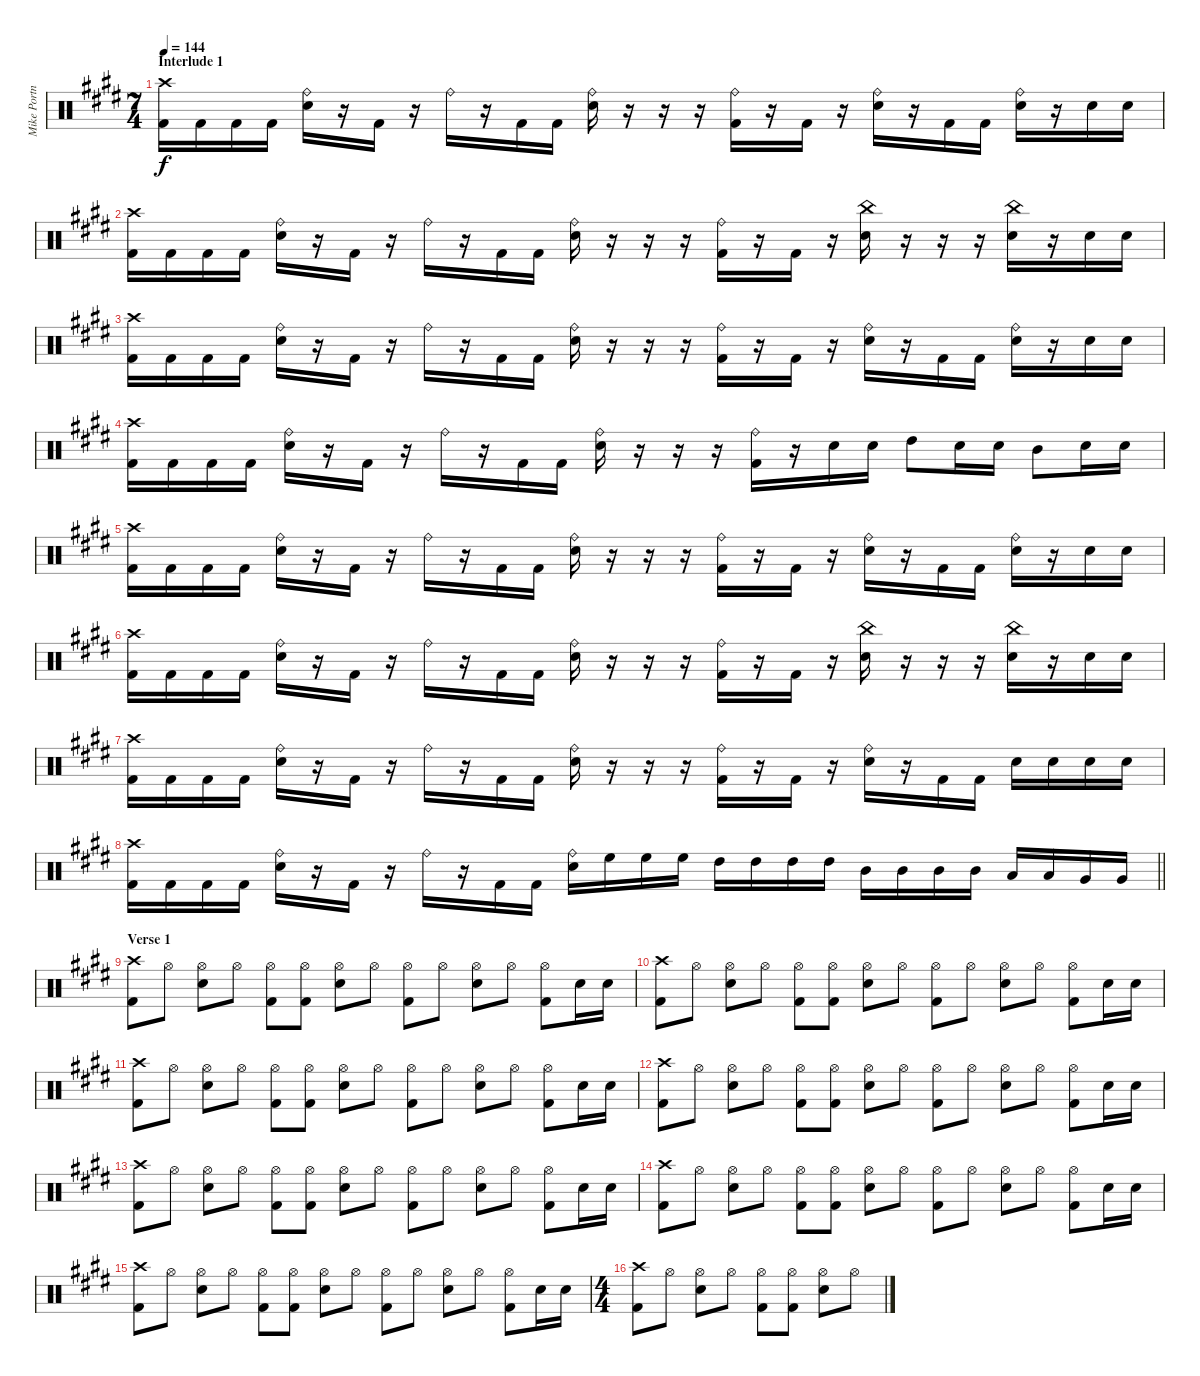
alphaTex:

\track ("Mike Portnoy" "Mike Portn") {instrument percussion}
\staff {score}
\articulation defaults
\ts (7 4)
\section ("" "Interlude 1")
\tempo 144
\clef neutral
\ks e
("Crash high (hit)" "Kick (hit) 2").16{dy f} "Kick (hit) 2".16 "Kick (hit) 2".16 "Kick (hit) 2".16 ("Ride (bell)" "Snare (hit) 2").16 r.16 "Kick (hit) 2".16 r.16 "Ride (bell)".16 r.16 "Kick (hit) 2".16 "Kick (hit) 2".16 ("Ride (bell)" "Snare (hit) 2").16 r.16 r.16 r.16 ("Ride (bell)" "Kick (hit) 2").16 r.16 "Kick (hit) 2".16 r.16 ("Ride (bell)" "Snare (hit) 2").16 r.16 "Kick (hit) 2".16 "Kick (hit) 2".16 ("Ride (bell)" "Snare (hit) 2").16 r.16 "Snare (hit) 2".16 "Snare (hit) 2".16 |
("Crash high (hit)" "Kick (hit) 2").16 "Kick (hit) 2".16 "Kick (hit) 2".16 "Kick (hit) 2".16 ("Ride (bell)" "Snare (hit) 2").16 r.16 "Kick (hit) 2".16 r.16 "Ride (bell)".16 r.16 "Kick (hit) 2".16 "Kick (hit) 2".16 ("Ride (bell)" "Snare (hit) 2").16 r.16 r.16 r.16 ("Ride (bell)" "Kick (hit) 2").16 r.16 "Kick (hit) 2".16 r.16 ("China (hit)" "Snare (hit) 2").16 r.16 r.16 r.16 ("China (hit)" "Snare (hit) 2").16 r.16 "Snare (hit) 2".16 "Snare (hit) 2".16 |
("Crash high (hit)" "Kick (hit) 2").16 "Kick (hit) 2".16 "Kick (hit) 2".16 "Kick (hit) 2".16 ("Ride (bell)" "Snare (hit) 2").16 r.16 "Kick (hit) 2".16 r.16 "Ride (bell)".16 r.16 "Kick (hit) 2".16 "Kick (hit) 2".16 ("Ride (bell)" "Snare (hit) 2").16 r.16 r.16 r.16 ("Ride (bell)" "Kick (hit) 2").16 r.16 "Kick (hit) 2".16 r.16 ("Ride (bell)" "Snare (hit) 2").16 r.16 "Kick (hit) 2".16 "Kick (hit) 2".16 ("Ride (bell)" "Snare (hit) 2").16 r.16 "Snare (hit) 2".16 "Snare (hit) 2".16 |
("Crash high (hit)" "Kick (hit) 2").16 "Kick (hit) 2".16 "Kick (hit) 2".16 "Kick (hit) 2".16 ("Ride (bell)" "Snare (hit) 2").16 r.16 "Kick (hit) 2".16 r.16 "Ride (bell)".16 r.16 "Kick (hit) 2".16 "Kick (hit) 2".16 ("Ride (bell)" "Snare (hit) 2").16 r.16 r.16 r.16 ("Ride (bell)" "Kick (hit) 2").16 r.16 "Snare (hit) 2".16 "Snare (hit) 2".16 "High Tom (hit)".8 "Snare (hit) 2".16 "Snare (hit) 2".16 "Mid Tom (hit)".8 "Snare (hit) 2".16 "Snare (hit) 2".16 |
("Crash high (hit)" "Kick (hit) 2").16 "Kick (hit) 2".16 "Kick (hit) 2".16 "Kick (hit) 2".16 ("Ride (bell)" "Snare (hit) 2").16 r.16 "Kick (hit) 2".16 r.16 "Ride (bell)".16 r.16 "Kick (hit) 2".16 "Kick (hit) 2".16 ("Ride (bell)" "Snare (hit) 2").16 r.16 r.16 r.16 ("Ride (bell)" "Kick (hit) 2").16 r.16 "Kick (hit) 2".16 r.16 ("Ride (bell)" "Snare (hit) 2").16 r.16 "Kick (hit) 2".16 "Kick (hit) 2".16 ("Ride (bell)" "Snare (hit) 2").16 r.16 "Snare (hit) 2".16 "Snare (hit) 2".16 |
("Crash high (hit)" "Kick (hit) 2").16 "Kick (hit) 2".16 "Kick (hit) 2".16 "Kick (hit) 2".16 ("Ride (bell)" "Snare (hit) 2").16 r.16 "Kick (hit) 2".16 r.16 "Ride (bell)".16 r.16 "Kick (hit) 2".16 "Kick (hit) 2".16 ("Ride (bell)" "Snare (hit) 2").16 r.16 r.16 r.16 ("Ride (bell)" "Kick (hit) 2").16 r.16 "Kick (hit) 2".16 r.16 ("China (hit)" "Snare (hit) 2").16 r.16 r.16 r.16 ("China (hit)" "Snare (hit) 2").16 r.16 "Snare (hit) 2".16 "Snare (hit) 2".16 |
("Crash high (hit)" "Kick (hit) 2").16 "Kick (hit) 2".16 "Kick (hit) 2".16 "Kick (hit) 2".16 ("Ride (bell)" "Snare (hit) 2").16 r.16 "Kick (hit) 2".16 r.16 "Ride (bell)".16 r.16 "Kick (hit) 2".16 "Kick (hit) 2".16 ("Ride (bell)" "Snare (hit) 2").16 r.16 r.16 r.16 ("Ride (bell)" "Kick (hit) 2").16 r.16 "Kick (hit) 2".16 r.16 ("Ride (bell)" "Snare (hit) 2").16 r.16 "Kick (hit) 2".16 "Kick (hit) 2".16 "Snare (hit) 2".16 "Snare (hit) 2".16 "Snare (hit) 2".16 "Snare (hit) 2".16 |
\barLineRight lightlight
("Crash high (hit)" "Kick (hit) 2").16 "Kick (hit) 2".16 "Kick (hit) 2".16 "Kick (hit) 2".16 ("Ride (bell)" "Snare (hit) 2").16 r.16 "Kick (hit) 2".16 r.16 "Ride (bell)".16 r.16 "Kick (hit) 2".16 "Kick (hit) 2".16 ("Ride (bell)" "Snare (hit) 2").16 "High Floor Tom (hit)".16 "High Floor Tom (hit)".16 "High Floor Tom (hit)".16 "High Tom (hit)".16 "High Tom (hit)".16 "High Tom (hit)".16 "High Tom (hit)".16 "Mid Tom (hit)".16 "Mid Tom (hit)".16 "Mid Tom (hit)".16 "Mid Tom (hit)".16 "Low Tom (hit)".16 "Low Tom (hit)".16 "Very Low Tom (hit)".16 "Very Low Tom (hit)".16 |
\section ("" "Verse 1")
("Kick (hit) 2" "Crash high (hit)").8 "Hi-Hat (open)".8 ("Snare (hit) 2" "Hi-Hat (open)").8 "Hi-Hat (open)".8 ("Kick (hit) 2" "Hi-Hat (open)").8 ("Kick (hit) 2" "Hi-Hat (open)").8 ("Snare (hit) 2" "Hi-Hat (open)").8 "Hi-Hat (open)".8 ("Kick (hit) 2" "Hi-Hat (open)").8 "Hi-Hat (open)".8 ("Snare (hit) 2" "Hi-Hat (open)").8 "Hi-Hat (open)".8 ("Kick (hit) 2" "Hi-Hat (open)").8 "Snare (hit) 2".16 "Snare (hit) 2".16 |
("Kick (hit) 2" "Crash high (hit)").8 "Hi-Hat (open)".8 ("Snare (hit) 2" "Hi-Hat (open)").8 "Hi-Hat (open)".8 ("Kick (hit) 2" "Hi-Hat (open)").8 ("Kick (hit) 2" "Hi-Hat (open)").8 ("Snare (hit) 2" "Hi-Hat (open)").8 "Hi-Hat (open)".8 ("Kick (hit) 2" "Hi-Hat (open)").8 "Hi-Hat (open)".8 ("Snare (hit) 2" "Hi-Hat (open)").8 "Hi-Hat (open)".8 ("Kick (hit) 2" "Hi-Hat (open)").8 "Snare (hit) 2".16 "Snare (hit) 2".16 |
("Kick (hit) 2" "Crash high (hit)").8 "Hi-Hat (open)".8 ("Snare (hit) 2" "Hi-Hat (open)").8 "Hi-Hat (open)".8 ("Kick (hit) 2" "Hi-Hat (open)").8 ("Kick (hit) 2" "Hi-Hat (open)").8 ("Snare (hit) 2" "Hi-Hat (open)").8 "Hi-Hat (open)".8 ("Kick (hit) 2" "Hi-Hat (open)").8 "Hi-Hat (open)".8 ("Snare (hit) 2" "Hi-Hat (open)").8 "Hi-Hat (open)".8 ("Kick (hit) 2" "Hi-Hat (open)").8 "Snare (hit) 2".16 "Snare (hit) 2".16 |
("Kick (hit) 2" "Crash high (hit)").8 "Hi-Hat (open)".8 ("Snare (hit) 2" "Hi-Hat (open)").8 "Hi-Hat (open)".8 ("Kick (hit) 2" "Hi-Hat (open)").8 ("Kick (hit) 2" "Hi-Hat (open)").8 ("Snare (hit) 2" "Hi-Hat (open)").8 "Hi-Hat (open)".8 ("Kick (hit) 2" "Hi-Hat (open)").8 "Hi-Hat (open)".8 ("Snare (hit) 2" "Hi-Hat (open)").8 "Hi-Hat (open)".8 ("Kick (hit) 2" "Hi-Hat (open)").8 "Snare (hit) 2".16 "Snare (hit) 2".16 |
("Kick (hit) 2" "Crash high (hit)").8 "Hi-Hat (open)".8 ("Snare (hit) 2" "Hi-Hat (open)").8 "Hi-Hat (open)".8 ("Kick (hit) 2" "Hi-Hat (open)").8 ("Kick (hit) 2" "Hi-Hat (open)").8 ("Snare (hit) 2" "Hi-Hat (open)").8 "Hi-Hat (open)".8 ("Kick (hit) 2" "Hi-Hat (open)").8 "Hi-Hat (open)".8 ("Snare (hit) 2" "Hi-Hat (open)").8 "Hi-Hat (open)".8 ("Kick (hit) 2" "Hi-Hat (open)").8 "Snare (hit) 2".16 "Snare (hit) 2".16 |
("Kick (hit) 2" "Crash high (hit)").8 "Hi-Hat (open)".8 ("Snare (hit) 2" "Hi-Hat (open)").8 "Hi-Hat (open)".8 ("Kick (hit) 2" "Hi-Hat (open)").8 ("Kick (hit) 2" "Hi-Hat (open)").8 ("Snare (hit) 2" "Hi-Hat (open)").8 "Hi-Hat (open)".8 ("Kick (hit) 2" "Hi-Hat (open)").8 "Hi-Hat (open)".8 ("Snare (hit) 2" "Hi-Hat (open)").8 "Hi-Hat (open)".8 ("Kick (hit) 2" "Hi-Hat (open)").8 "Snare (hit) 2".16 "Snare (hit) 2".16 |
("Kick (hit) 2" "Crash high (hit)").8 "Hi-Hat (open)".8 ("Snare (hit) 2" "Hi-Hat (open)").8 "Hi-Hat (open)".8 ("Kick (hit) 2" "Hi-Hat (open)").8 ("Kick (hit) 2" "Hi-Hat (open)").8 ("Snare (hit) 2" "Hi-Hat (open)").8 "Hi-Hat (open)".8 ("Kick (hit) 2" "Hi-Hat (open)").8 "Hi-Hat (open)".8 ("Snare (hit) 2" "Hi-Hat (open)").8 "Hi-Hat (open)".8 ("Kick (hit) 2" "Hi-Hat (open)").8 "Snare (hit) 2".16 "Snare (hit) 2".16 |
\ts (4 4)
("Kick (hit) 2" "Crash high (hit)").8 "Hi-Hat (open)".8 ("Snare (hit) 2" "Hi-Hat (open)").8 "Hi-Hat (open)".8 ("Kick (hit) 2" "Hi-Hat (open)").8 ("Kick (hit) 2" "Hi-Hat (open)").8 ("Snare (hit) 2" "Hi-Hat (open)").8 "Hi-Hat (open)".8
